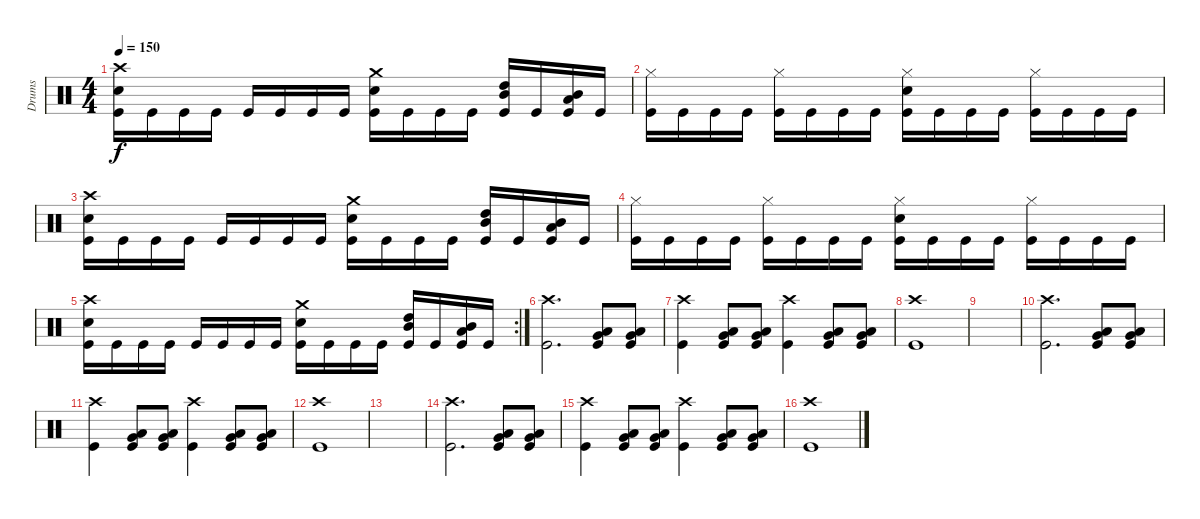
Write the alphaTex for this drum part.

\track ("Drums" "Drums") {instrument percussion}
\staff {score}
\articulation defaults
\ts (4 4)
\tempo 150
\clef neutral
\ks c
("Crash high (hit)" "Snare (hit) 2" "Kick (hit)").16{dy f} "Kick (hit)".16 "Kick (hit)".16 "Kick (hit)".16 "Kick (hit)".16 "Kick (hit)".16 "Kick (hit)".16 "Kick (hit)".16 ("Crash medium (hit)" "Snare (hit) 2" "Kick (hit)").16 "Kick (hit)".16 "Kick (hit)".16 "Kick (hit)".16 ("Mid Tom (hit)" "High Tom (hit)" "Kick (hit)").16 "Kick (hit)".16 ("Low Tom (hit)" "Mid Tom (hit)" "Kick (hit)").16 "Kick (hit)".16 |
("Hi-Hat (closed)" "Kick (hit)").16 "Kick (hit)".16 "Kick (hit)".16 "Kick (hit)".16 ("Hi-Hat (closed)" "Kick (hit)").16 "Kick (hit)".16 "Kick (hit)".16 "Kick (hit)".16 ("Hi-Hat (closed)" "Snare (hit) 2" "Kick (hit)").16 "Kick (hit)".16 "Kick (hit)".16 "Kick (hit)".16 ("Hi-Hat (closed)" "Kick (hit)").16 "Kick (hit)".16 "Kick (hit)".16 "Kick (hit)".16 |
("Crash high (hit)" "Snare (hit) 2" "Kick (hit)").16 "Kick (hit)".16 "Kick (hit)".16 "Kick (hit)".16 "Kick (hit)".16 "Kick (hit)".16 "Kick (hit)".16 "Kick (hit)".16 ("Crash medium (hit)" "Snare (hit) 2" "Kick (hit)").16 "Kick (hit)".16 "Kick (hit)".16 "Kick (hit)".16 ("Mid Tom (hit)" "High Tom (hit)" "Kick (hit)").16 "Kick (hit)".16 ("Low Tom (hit)" "Mid Tom (hit)" "Kick (hit)").16 "Kick (hit)".16 |
("Hi-Hat (closed)" "Kick (hit)").16 "Kick (hit)".16 "Kick (hit)".16 "Kick (hit)".16 ("Hi-Hat (closed)" "Kick (hit)").16 "Kick (hit)".16 "Kick (hit)".16 "Kick (hit)".16 ("Hi-Hat (closed)" "Snare (hit) 2" "Kick (hit)").16 "Kick (hit)".16 "Kick (hit)".16 "Kick (hit)".16 ("Hi-Hat (closed)" "Kick (hit)").16 "Kick (hit)".16 "Kick (hit)".16 "Kick (hit)".16 |
\rc 2
("Crash high (hit)" "Snare (hit) 2" "Kick (hit)").16 "Kick (hit)".16 "Kick (hit)".16 "Kick (hit)".16 "Kick (hit)".16 "Kick (hit)".16 "Kick (hit)".16 "Kick (hit)".16 ("Crash medium (hit)" "Snare (hit) 2" "Kick (hit)").16 "Kick (hit)".16 "Kick (hit)".16 "Kick (hit)".16 ("Mid Tom (hit)" "High Tom (hit)" "Kick (hit)").16 "Kick (hit)".16 ("Low Tom (hit)" "Mid Tom (hit)" "Kick (hit)").16 "Kick (hit)".16 |
("Crash high (hit)" "Kick (hit)").2{d} ("Low Tom (hit)" "Very Low Tom (hit)" "Kick (hit)").8 ("Low Tom (hit)" "Very Low Tom (hit)" "Kick (hit)").8 |
("Crash high (hit)" "Kick (hit)").4 ("Low Tom (hit)" "Very Low Tom (hit)" "Kick (hit)").8 ("Low Tom (hit)" "Very Low Tom (hit)" "Kick (hit)").8 ("Crash high (hit)" "Kick (hit)").4 ("Low Tom (hit)" "Very Low Tom (hit)" "Kick (hit)").8 ("Low Tom (hit)" "Very Low Tom (hit)" "Kick (hit)").8 |
("Crash high (hit)" "Kick (hit)").1 |
|
("Crash high (hit)" "Kick (hit)").2{d} ("Low Tom (hit)" "Very Low Tom (hit)" "Kick (hit)").8 ("Low Tom (hit)" "Very Low Tom (hit)" "Kick (hit)").8 |
("Crash high (hit)" "Kick (hit)").4 ("Low Tom (hit)" "Very Low Tom (hit)" "Kick (hit)").8 ("Low Tom (hit)" "Very Low Tom (hit)" "Kick (hit)").8 ("Crash high (hit)" "Kick (hit)").4 ("Low Tom (hit)" "Very Low Tom (hit)" "Kick (hit)").8 ("Low Tom (hit)" "Very Low Tom (hit)" "Kick (hit)").8 |
("Crash high (hit)" "Kick (hit)").1 |
|
("Crash high (hit)" "Kick (hit)").2{d} ("Low Tom (hit)" "Very Low Tom (hit)" "Kick (hit)").8 ("Low Tom (hit)" "Very Low Tom (hit)" "Kick (hit)").8 |
("Crash high (hit)" "Kick (hit)").4 ("Low Tom (hit)" "Very Low Tom (hit)" "Kick (hit)").8 ("Low Tom (hit)" "Very Low Tom (hit)" "Kick (hit)").8 ("Crash high (hit)" "Kick (hit)").4 ("Low Tom (hit)" "Very Low Tom (hit)" "Kick (hit)").8 ("Low Tom (hit)" "Very Low Tom (hit)" "Kick (hit)").8 |
("Crash high (hit)" "Kick (hit)").1
